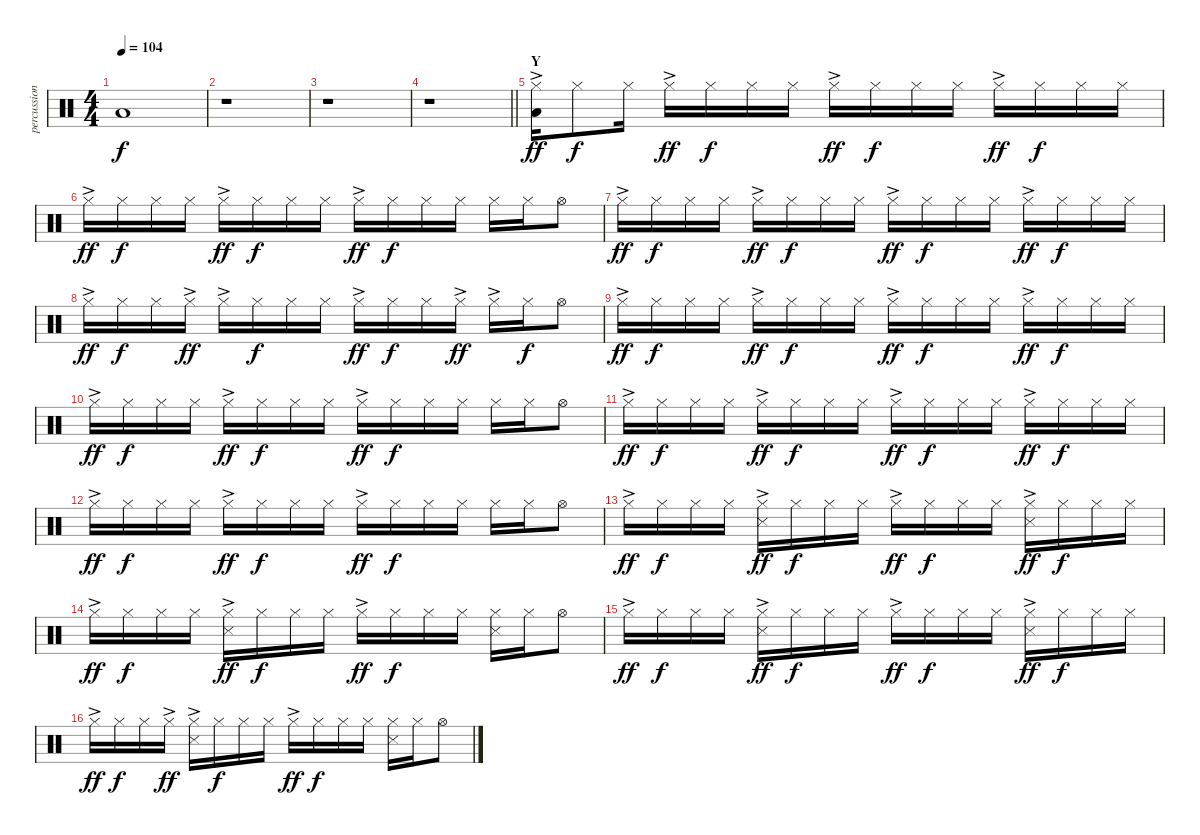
\track ("percussion" "percussion") {instrument percussion}
\staff {score}
\articulation defaults
\ts (4 4)
\tempo 104
\clef neutral
\ks c "Low Floor Tom (hit)".1{dy f}
|
r.1 |
r.1 |
\barLineRight lightlight
r.1 |
\section ("" "Y")
("Low Floor Tom (hit)" "Hi-Hat (closed)"{ac}).16{dy ff} "Hi-Hat (closed)".8{dy f} "Hi-Hat (closed)".16 "Hi-Hat (closed)"{ac}.16{dy ff} "Hi-Hat (closed)".16{dy f} "Hi-Hat (closed)".16 "Hi-Hat (closed)".16 "Hi-Hat (closed)"{ac}.16{dy ff} "Hi-Hat (closed)".16{dy f} "Hi-Hat (closed)".16 "Hi-Hat (closed)".16 "Hi-Hat (closed)"{ac}.16{dy ff} "Hi-Hat (closed)".16{dy f} "Hi-Hat (closed)".16 "Hi-Hat (closed)".16 |
"Hi-Hat (closed)"{ac}.16{dy ff} "Hi-Hat (closed)".16{dy f} "Hi-Hat (closed)".16 "Hi-Hat (closed)".16 "Hi-Hat (closed)"{ac}.16{dy ff} "Hi-Hat (closed)".16{dy f} "Hi-Hat (closed)".16 "Hi-Hat (closed)".16 "Hi-Hat (closed)"{ac}.16{dy ff} "Hi-Hat (closed)".16{dy f} "Hi-Hat (closed)".16 "Hi-Hat (closed)".16 "Hi-Hat (closed)".16 "Hi-Hat (closed)".16 "Hi-Hat (open)".8 |
"Hi-Hat (closed)"{ac}.16{dy ff} "Hi-Hat (closed)".16{dy f} "Hi-Hat (closed)".16 "Hi-Hat (closed)".16 "Hi-Hat (closed)"{ac}.16{dy ff} "Hi-Hat (closed)".16{dy f} "Hi-Hat (closed)".16 "Hi-Hat (closed)".16 "Hi-Hat (closed)"{ac}.16{dy ff} "Hi-Hat (closed)".16{dy f} "Hi-Hat (closed)".16 "Hi-Hat (closed)".16 "Hi-Hat (closed)"{ac}.16{dy ff} "Hi-Hat (closed)".16{dy f} "Hi-Hat (closed)".16 "Hi-Hat (closed)".16 |
"Hi-Hat (closed)"{ac}.16{dy ff} "Hi-Hat (closed)".16{dy f} "Hi-Hat (closed)".16 "Hi-Hat (closed)"{ac}.16{dy ff} "Hi-Hat (closed)"{ac}.16 "Hi-Hat (closed)".16{dy f} "Hi-Hat (closed)".16 "Hi-Hat (closed)".16 "Hi-Hat (closed)"{ac}.16{dy ff} "Hi-Hat (closed)".16{dy f} "Hi-Hat (closed)".16 "Hi-Hat (closed)"{ac}.16{dy ff} "Hi-Hat (closed)"{ac}.16 "Hi-Hat (closed)".16{dy f} "Hi-Hat (open)".8 |
"Hi-Hat (closed)"{ac}.16{dy ff} "Hi-Hat (closed)".16{dy f} "Hi-Hat (closed)".16 "Hi-Hat (closed)".16 "Hi-Hat (closed)"{ac}.16{dy ff} "Hi-Hat (closed)".16{dy f} "Hi-Hat (closed)".16 "Hi-Hat (closed)".16 "Hi-Hat (closed)"{ac}.16{dy ff} "Hi-Hat (closed)".16{dy f} "Hi-Hat (closed)".16 "Hi-Hat (closed)".16 "Hi-Hat (closed)"{ac}.16{dy ff} "Hi-Hat (closed)".16{dy f} "Hi-Hat (closed)".16 "Hi-Hat (closed)".16 |
"Hi-Hat (closed)"{ac}.16{dy ff} "Hi-Hat (closed)".16{dy f} "Hi-Hat (closed)".16 "Hi-Hat (closed)".16 "Hi-Hat (closed)"{ac}.16{dy ff} "Hi-Hat (closed)".16{dy f} "Hi-Hat (closed)".16 "Hi-Hat (closed)".16 "Hi-Hat (closed)"{ac}.16{dy ff} "Hi-Hat (closed)".16{dy f} "Hi-Hat (closed)".16 "Hi-Hat (closed)".16 "Hi-Hat (closed)".16 "Hi-Hat (closed)".16 "Hi-Hat (open)".8 |
"Hi-Hat (closed)"{ac}.16{dy ff} "Hi-Hat (closed)".16{dy f} "Hi-Hat (closed)".16 "Hi-Hat (closed)".16 "Hi-Hat (closed)"{ac}.16{dy ff} "Hi-Hat (closed)".16{dy f} "Hi-Hat (closed)".16 "Hi-Hat (closed)".16 "Hi-Hat (closed)"{ac}.16{dy ff} "Hi-Hat (closed)".16{dy f} "Hi-Hat (closed)".16 "Hi-Hat (closed)".16 "Hi-Hat (closed)"{ac}.16{dy ff} "Hi-Hat (closed)".16{dy f} "Hi-Hat (closed)".16 "Hi-Hat (closed)".16 |
"Hi-Hat (closed)"{ac}.16{dy ff} "Hi-Hat (closed)".16{dy f} "Hi-Hat (closed)".16 "Hi-Hat (closed)".16 "Hi-Hat (closed)"{ac}.16{dy ff} "Hi-Hat (closed)".16{dy f} "Hi-Hat (closed)".16 "Hi-Hat (closed)".16 "Hi-Hat (closed)"{ac}.16{dy ff} "Hi-Hat (closed)".16{dy f} "Hi-Hat (closed)".16 "Hi-Hat (closed)".16 "Hi-Hat (closed)".16 "Hi-Hat (closed)".16 "Hi-Hat (open)".8 |
"Hi-Hat (closed)"{ac}.16{dy ff} "Hi-Hat (closed)".16{dy f} "Hi-Hat (closed)".16 "Hi-Hat (closed)".16 ("Metronome (hit)" "Hi-Hat (closed)"{ac}).16{dy ff} "Hi-Hat (closed)".16{dy f} "Hi-Hat (closed)".16 "Hi-Hat (closed)".16 "Hi-Hat (closed)"{ac}.16{dy ff} "Hi-Hat (closed)".16{dy f} "Hi-Hat (closed)".16 "Hi-Hat (closed)".16 ("Metronome (hit)" "Hi-Hat (closed)"{ac}).16{dy ff} "Hi-Hat (closed)".16{dy f} "Hi-Hat (closed)".16 "Hi-Hat (closed)".16 |
"Hi-Hat (closed)"{ac}.16{dy ff} "Hi-Hat (closed)".16{dy f} "Hi-Hat (closed)".16 "Hi-Hat (closed)".16 ("Metronome (hit)" "Hi-Hat (closed)"{ac}).16{dy ff} "Hi-Hat (closed)".16{dy f} "Hi-Hat (closed)".16 "Hi-Hat (closed)".16 "Hi-Hat (closed)"{ac}.16{dy ff} "Hi-Hat (closed)".16{dy f} "Hi-Hat (closed)".16 "Hi-Hat (closed)".16 ("Metronome (hit)" "Hi-Hat (closed)").16 "Hi-Hat (closed)".16 "Hi-Hat (open)".8 |
"Hi-Hat (closed)"{ac}.16{dy ff} "Hi-Hat (closed)".16{dy f} "Hi-Hat (closed)".16 "Hi-Hat (closed)".16 ("Metronome (hit)" "Hi-Hat (closed)"{ac}).16{dy ff} "Hi-Hat (closed)".16{dy f} "Hi-Hat (closed)".16 "Hi-Hat (closed)".16 "Hi-Hat (closed)"{ac}.16{dy ff} "Hi-Hat (closed)".16{dy f} "Hi-Hat (closed)".16 "Hi-Hat (closed)".16 ("Metronome (hit)" "Hi-Hat (closed)"{ac}).16{dy ff} "Hi-Hat (closed)".16{dy f} "Hi-Hat (closed)".16 "Hi-Hat (closed)".16 |
"Hi-Hat (closed)"{ac}.16{dy ff} "Hi-Hat (closed)".16{dy f} "Hi-Hat (closed)".16 "Hi-Hat (closed)"{ac}.16{dy ff} ("Metronome (hit)" "Hi-Hat (closed)"{ac}).16 "Hi-Hat (closed)".16{dy f} "Hi-Hat (closed)".16 "Hi-Hat (closed)".16 "Hi-Hat (closed)"{ac}.16{dy ff} "Hi-Hat (closed)".16{dy f} "Hi-Hat (closed)".16 "Hi-Hat (closed)".16 ("Metronome (hit)" "Hi-Hat (closed)").16 "Hi-Hat (closed)".16 "Hi-Hat (open)".8
